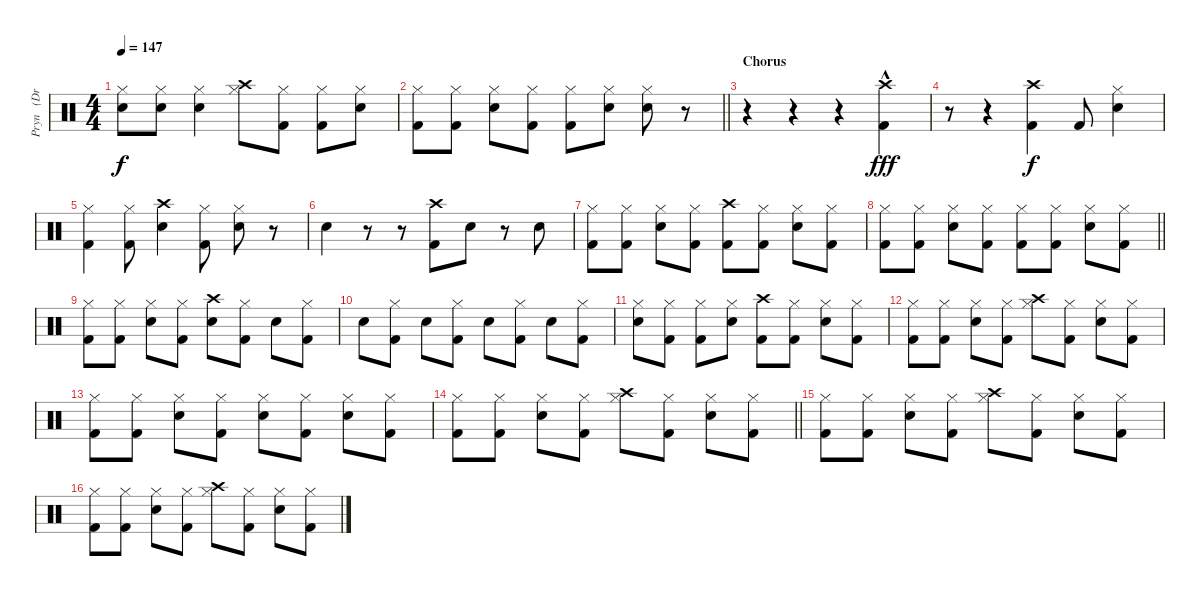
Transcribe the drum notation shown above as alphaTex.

\track ("Pryn   (Drums)" "Pryn   (Dr") {instrument percussion}
\staff {score}
\articulation defaults
\ts (4 4)
\tempo 147
\clef neutral
\ks c
("Electric Snare (hit)" "Hi-Hat (closed)").8{dy f} ("Electric Snare (hit)" "Hi-Hat (closed)").8 ("Electric Snare (hit)" "Hi-Hat (closed)").4 ("Crash high (hit)" "Hi-Hat (closed)").8 ("Kick (hit) 2" "Hi-Hat (closed)").8 ("Kick (hit) 2" "Hi-Hat (closed)").8 ("Electric Snare (hit)" "Hi-Hat (closed)").8 |
\barLineRight lightlight
("Hi-Hat (closed)" "Kick (hit) 2").8 ("Kick (hit) 2" "Hi-Hat (closed)").8 ("Electric Snare (hit)" "Hi-Hat (closed)").8 ("Kick (hit) 2" "Hi-Hat (closed)").8 ("Kick (hit) 2" "Hi-Hat (closed)").8 ("Electric Snare (hit)" "Hi-Hat (closed)").8 ("Electric Snare (hit)" "Hi-Hat (closed)").8 r.8 |
\section ("" "Chorus")
r.4 r.4 r.4 ("Kick (hit) 2" "Crash high (hit)"{hac}).4{dy fff} |
r.8 r.4 ("Kick (hit) 2" "Crash high (hit)").4{dy f} "Kick (hit) 2".8 ("Electric Snare (hit)" "Hi-Hat (closed)").4 |
("Kick (hit) 2" "Hi-Hat (closed)").4 ("Hi-Hat (closed)" "Kick (hit) 2").8 ("Electric Snare (hit)" "Crash high (hit)").4 ("Hi-Hat (closed)" "Kick (hit) 2").8 ("Hi-Hat (closed)" "Electric Snare (hit)").8 r.8 |
"Electric Snare (hit)".4 r.8 r.8 ("Crash high (hit)" "Kick (hit) 2").8 "Electric Snare (hit)".8 r.8 "Electric Snare (hit)".8 |
("Kick (hit) 2" "Hi-Hat (closed)").8 ("Kick (hit) 2" "Hi-Hat (closed)").8 ("Electric Snare (hit)" "Hi-Hat (closed)").8 ("Kick (hit) 2" "Hi-Hat (closed)").8 ("Kick (hit) 2" "Crash high (hit)").8 ("Kick (hit) 2" "Hi-Hat (closed)").8 ("Electric Snare (hit)" "Hi-Hat (closed)").8 ("Kick (hit) 2" "Hi-Hat (closed)").8 |
\barLineRight lightlight
("Kick (hit) 2" "Hi-Hat (closed)").8 ("Kick (hit) 2" "Hi-Hat (closed)").8 ("Electric Snare (hit)" "Hi-Hat (closed)").8 ("Kick (hit) 2" "Hi-Hat (closed)").8 ("Kick (hit) 2" "Hi-Hat (closed)").8 ("Kick (hit) 2" "Hi-Hat (closed)").8 ("Electric Snare (hit)" "Hi-Hat (closed)").8 ("Kick (hit) 2" "Hi-Hat (closed)").8 |
("Kick (hit) 2" "Hi-Hat (closed)").8 ("Kick (hit) 2" "Hi-Hat (closed)").8 ("Electric Snare (hit)" "Hi-Hat (closed)").8 ("Kick (hit) 2" "Hi-Hat (closed)").8 ("Electric Snare (hit)" "Crash high (hit)").8 ("Kick (hit) 2" "Hi-Hat (closed)").8 "Electric Snare (hit)".8 ("Kick (hit) 2" "Hi-Hat (closed)").8 |
"Electric Snare (hit)".8 ("Kick (hit) 2" "Hi-Hat (closed)").8 "Electric Snare (hit)".8 ("Kick (hit) 2" "Hi-Hat (closed)").8 "Electric Snare (hit)".8 ("Kick (hit) 2" "Hi-Hat (closed)").8 "Electric Snare (hit)".8 ("Kick (hit) 2" "Hi-Hat (closed)").8 |
("Electric Snare (hit)" "Hi-Hat (closed)").8 ("Kick (hit) 2" "Hi-Hat (closed)").8 ("Kick (hit) 2" "Hi-Hat (closed)").8 ("Electric Snare (hit)" "Hi-Hat (closed)").8 ("Kick (hit) 2" "Crash high (hit)").8 ("Kick (hit) 2" "Hi-Hat (closed)").8 ("Electric Snare (hit)" "Hi-Hat (closed)").8 ("Kick (hit) 2" "Hi-Hat (closed)").8 |
("Kick (hit) 2" "Hi-Hat (closed)").8 ("Kick (hit) 2" "Hi-Hat (closed)").8 ("Electric Snare (hit)" "Hi-Hat (closed)").8 ("Kick (hit) 2" "Hi-Hat (closed)").8 ("Crash high (hit)" "Hi-Hat (closed)").8 ("Kick (hit) 2" "Hi-Hat (closed)").8 ("Electric Snare (hit)" "Hi-Hat (closed)").8 ("Kick (hit) 2" "Hi-Hat (closed)").8 |
("Kick (hit) 2" "Hi-Hat (closed)").8 ("Kick (hit) 2" "Hi-Hat (closed)").8 ("Electric Snare (hit)" "Hi-Hat (closed)").8 ("Kick (hit) 2" "Hi-Hat (closed)").8 ("Electric Snare (hit)" "Hi-Hat (closed)").8 ("Kick (hit) 2" "Hi-Hat (closed)").8 ("Electric Snare (hit)" "Hi-Hat (closed)").8 ("Kick (hit) 2" "Hi-Hat (closed)").8 |
\barLineRight lightlight
("Kick (hit) 2" "Hi-Hat (closed)").8 ("Kick (hit) 2" "Hi-Hat (closed)").8 ("Electric Snare (hit)" "Hi-Hat (closed)").8 ("Kick (hit) 2" "Hi-Hat (closed)").8 ("Crash high (hit)" "Hi-Hat (closed)").8 ("Kick (hit) 2" "Hi-Hat (closed)").8 ("Electric Snare (hit)" "Hi-Hat (closed)").8 ("Kick (hit) 2" "Hi-Hat (closed)").8 |
("Kick (hit) 2" "Hi-Hat (closed)").8 ("Kick (hit) 2" "Hi-Hat (closed)").8 ("Electric Snare (hit)" "Hi-Hat (closed)").8 ("Kick (hit) 2" "Hi-Hat (closed)").8 ("Crash high (hit)" "Hi-Hat (closed)").8 ("Kick (hit) 2" "Hi-Hat (closed)").8 ("Electric Snare (hit)" "Hi-Hat (closed)").8 ("Kick (hit) 2" "Hi-Hat (closed)").8 |
("Kick (hit) 2" "Hi-Hat (closed)").8 ("Kick (hit) 2" "Hi-Hat (closed)").8 ("Electric Snare (hit)" "Hi-Hat (closed)").8 ("Kick (hit) 2" "Hi-Hat (closed)").8 ("Crash high (hit)" "Hi-Hat (closed)").8 ("Kick (hit) 2" "Hi-Hat (closed)").8 ("Electric Snare (hit)" "Hi-Hat (closed)").8 ("Kick (hit) 2" "Hi-Hat (closed)").8
